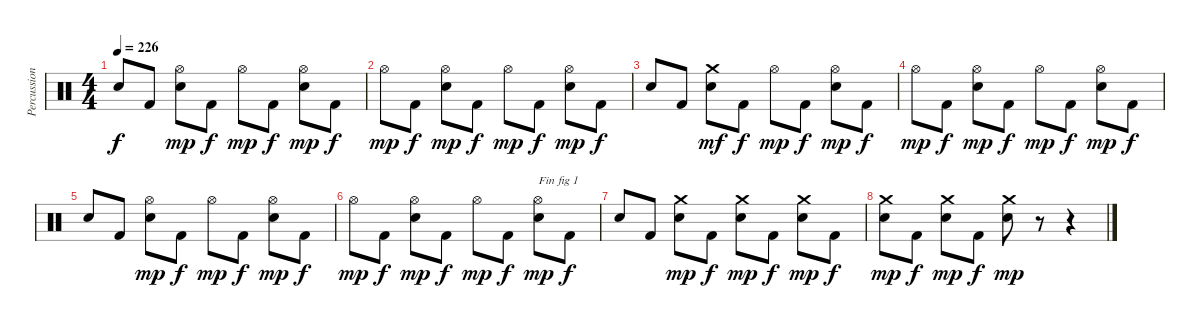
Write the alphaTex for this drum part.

\track ("Percussions" "Percussion") {instrument percussion}
\staff {score}
\articulation defaults
\ts (4 4)
\tempo 226
\clef neutral
\ks c "Electric Snare (hit)".8{dy f} "Kick (hit) 2".8
("Electric Snare (hit)" "Hi-Hat (open)").8{dy mp} "Kick (hit) 2".8{dy f} "Hi-Hat (open)".8{dy mp} "Kick (hit) 2".8{dy f} ("Electric Snare (hit)" "Hi-Hat (open)").8{dy mp} "Kick (hit) 2".8{dy f} |
"Hi-Hat (open)".8{dy mp} "Kick (hit) 2".8{dy f} ("Electric Snare (hit)" "Hi-Hat (open)").8{dy mp} "Kick (hit) 2".8{dy f} "Hi-Hat (open)".8{dy mp} "Kick (hit) 2".8{dy f} ("Electric Snare (hit)" "Hi-Hat (open)").8{dy mp} "Kick (hit) 2".8{dy f} |
"Electric Snare (hit)".8 "Kick (hit) 2".8 ("Electric Snare (hit)" "Crash medium (hit)").8{dy mf} "Kick (hit) 2".8{dy f} "Hi-Hat (open)".8{dy mp} "Kick (hit) 2".8{dy f} ("Electric Snare (hit)" "Hi-Hat (open)").8{dy mp} "Kick (hit) 2".8{dy f} |
"Hi-Hat (open)".8{dy mp} "Kick (hit) 2".8{dy f} ("Electric Snare (hit)" "Hi-Hat (open)").8{dy mp} "Kick (hit) 2".8{dy f} "Hi-Hat (open)".8{dy mp} "Kick (hit) 2".8{dy f} ("Electric Snare (hit)" "Hi-Hat (open)").8{dy mp} "Kick (hit) 2".8{dy f} |
"Electric Snare (hit)".8 "Kick (hit) 2".8 ("Electric Snare (hit)" "Hi-Hat (open)").8{dy mp} "Kick (hit) 2".8{dy f} "Hi-Hat (open)".8{dy mp} "Kick (hit) 2".8{dy f} ("Electric Snare (hit)" "Hi-Hat (open)").8{dy mp} "Kick (hit) 2".8{dy f} |
"Hi-Hat (open)".8{dy mp} "Kick (hit) 2".8{dy f} ("Electric Snare (hit)" "Hi-Hat (open)").8{dy mp} "Kick (hit) 2".8{dy f} "Hi-Hat (open)".8{dy mp} "Kick (hit) 2".8{dy f} ("Electric Snare (hit)" "Hi-Hat (open)").8{txt "Fin fig 1" dy mp} "Kick (hit) 2".8{dy f} |
"Electric Snare (hit)".8 "Kick (hit) 2".8 ("Electric Snare (hit)" "Crash medium (hit)").8{dy mp} "Kick (hit) 2".8{dy f} ("Electric Snare (hit)" "Crash medium (hit)").8{dy mp} "Kick (hit) 2".8{dy f} ("Electric Snare (hit)" "Crash medium (hit)").8{dy mp} "Kick (hit) 2".8{dy f} |
("Electric Snare (hit)" "Crash medium (hit)").8{dy mp} "Kick (hit) 2".8{dy f} ("Electric Snare (hit)" "Crash medium (hit)").8{dy mp} "Kick (hit) 2".8{dy f} ("Electric Snare (hit)" "Crash medium (hit)").8{dy mp} r.8 r.4
